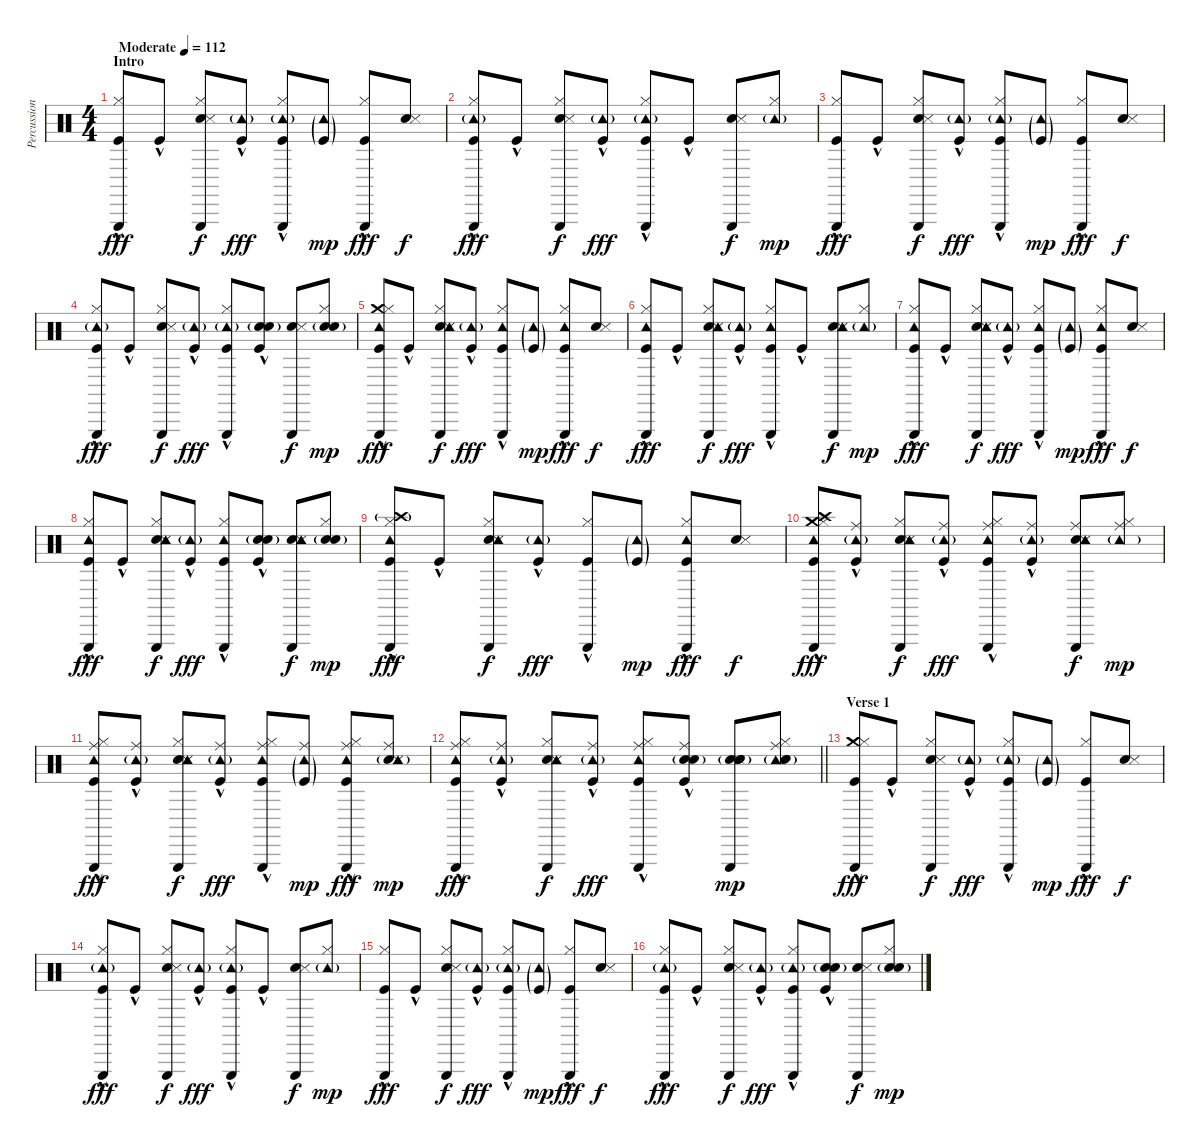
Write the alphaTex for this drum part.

\track ("Percussioni" "Percussion") {instrument percussion}
\staff {score}
\articulation defaults
\ts (4 4)
\section ("" "Intro")
\tempo (112 "Moderate")
\clef neutral
\ks c
("Triangle (hit)" "Hi-Hat (closed)" "Kick (hit)"{hac}).8{dy fff} "Kick (hit)"{hac}.8 ("Hand Clap (hit)" "Snare (side stick) 3" "Hi-Hat (closed)" "Triangle (hit)").8{dy f} ("Tambourine (hit)"{g} "Kick (hit)"{hac}).8{dy fff} ("Triangle (hit)" "Hi-Hat (closed)" "Tambourine (hit)"{g} "Kick (hit)"{hac}).8 ("Tambourine (hit)"{g} "Kick (hit)"{g}).8{dy mp} ("Triangle (hit)" "Hi-Hat (closed)" "Kick (hit)"{hac}).8{dy fff} ("Hand Clap (hit)" "Snare (side stick) 3").8{dy f} |
("Triangle (hit)" "Hi-Hat (closed)" "Tambourine (hit)"{g} "Kick (hit)"{hac}).8{dy fff} "Kick (hit)"{hac}.8 ("Hand Clap (hit)" "Snare (side stick) 3" "Hi-Hat (closed)" "Triangle (hit)").8{dy f} ("Tambourine (hit)"{g} "Kick (hit)"{hac}).8{dy fff} ("Triangle (hit)" "Hi-Hat (closed)" "Tambourine (hit)"{g} "Kick (hit)"{hac}).8 "Kick (hit)"{hac}.8 ("Hand Clap (hit)" "Snare (side stick) 3" "Triangle (hit)").8{dy f} ("Hi-Hat (closed)" "Tambourine (hit)"{g}).8{dy mp} |
("Triangle (hit)" "Hi-Hat (closed)" "Kick (hit)"{hac}).8{dy fff} "Kick (hit)"{hac}.8 ("Hand Clap (hit)" "Snare (side stick) 3" "Hi-Hat (closed)" "Triangle (hit)").8{dy f} ("Tambourine (hit)"{g} "Kick (hit)"{hac}).8{dy fff} ("Triangle (hit)" "Hi-Hat (closed)" "Tambourine (hit)"{g} "Kick (hit)"{hac}).8 ("Tambourine (hit)"{g} "Kick (hit)"{g}).8{dy mp} ("Triangle (hit)" "Hi-Hat (closed)" "Kick (hit)"{hac}).8{dy fff} ("Hand Clap (hit)" "Snare (side stick) 3").8{dy f} |
("Triangle (hit)" "Hi-Hat (closed)" "Tambourine (hit)"{g} "Kick (hit)"{hac}).8{dy fff} "Kick (hit)"{hac}.8 ("Hand Clap (hit)" "Snare (side stick) 3" "Hi-Hat (closed)" "Triangle (hit)").8{dy f} ("Tambourine (hit)"{g} "Kick (hit)"{hac}).8{dy fff} ("Triangle (hit)" "Hi-Hat (closed)" "Tambourine (hit)"{g} "Kick (hit)"{hac}).8 ("Snare (hit) 2" "Electric Snare (hit)"{g} "Kick (hit)"{hac}).8 ("Hand Clap (hit)" "Snare (side stick) 3" "Triangle (hit)").8{dy f} ("Hi-Hat (closed)" "Snare (hit) 2" "Electric Snare (hit)"{g}).8{dy mp} |
("Crash medium (hit)"{hac} "Triangle (hit)" "Hi-Hat (closed)" "Tambourine (hit)" "Kick (hit)"{hac}).8{dy fff} "Kick (hit)"{hac}.8 ("Hand Clap (hit)" "Snare (side stick) 3" "Hi-Hat (closed)" "Tambourine (hit)" "Triangle (hit)").8{dy f} ("Tambourine (hit)"{g} "Kick (hit)"{hac}).8{dy fff} ("Triangle (hit)" "Hi-Hat (closed)" "Tambourine (hit)" "Kick (hit)"{hac}).8 ("Tambourine (hit)"{g} "Kick (hit)"{g}).8{dy mp} ("Triangle (hit)" "Hi-Hat (closed)" "Tambourine (hit)" "Kick (hit)"{hac}).8{dy fff} ("Hand Clap (hit)" "Snare (side stick) 3").8{dy f} |
("Triangle (hit)" "Hi-Hat (closed)" "Tambourine (hit)" "Kick (hit)"{hac}).8{dy fff} "Kick (hit)"{hac}.8 ("Hand Clap (hit)" "Snare (side stick) 3" "Hi-Hat (closed)" "Tambourine (hit)" "Triangle (hit)").8{dy f} ("Tambourine (hit)"{g} "Kick (hit)"{hac}).8{dy fff} ("Triangle (hit)" "Hi-Hat (closed)" "Tambourine (hit)" "Kick (hit)"{hac}).8 "Kick (hit)"{hac}.8 ("Hand Clap (hit)" "Snare (side stick) 3" "Triangle (hit)" "Tambourine (hit)").8{dy f} ("Hi-Hat (closed)" "Tambourine (hit)"{g}).8{dy mp} |
("Triangle (hit)" "Hi-Hat (closed)" "Tambourine (hit)" "Kick (hit)"{hac}).8{dy fff} "Kick (hit)"{hac}.8 ("Hand Clap (hit)" "Snare (side stick) 3" "Hi-Hat (closed)" "Tambourine (hit)" "Triangle (hit)").8{dy f} ("Tambourine (hit)"{g} "Kick (hit)"{hac}).8{dy fff} ("Triangle (hit)" "Hi-Hat (closed)" "Tambourine (hit)" "Kick (hit)"{hac}).8 ("Tambourine (hit)"{g} "Kick (hit)"{g}).8{dy mp} ("Triangle (hit)" "Hi-Hat (closed)" "Tambourine (hit)" "Kick (hit)"{hac}).8{dy fff} ("Hand Clap (hit)" "Snare (side stick) 3").8{dy f} |
("Triangle (hit)" "Hi-Hat (closed)" "Tambourine (hit)" "Kick (hit)"{hac}).8{dy fff} "Kick (hit)"{hac}.8 ("Hand Clap (hit)" "Snare (side stick) 3" "Hi-Hat (closed)" "Tambourine (hit)" "Triangle (hit)").8{dy f} ("Tambourine (hit)"{g} "Kick (hit)"{hac}).8{dy fff} ("Triangle (hit)" "Hi-Hat (closed)" "Tambourine (hit)" "Kick (hit)"{hac}).8 ("Snare (hit) 2" "Electric Snare (hit)"{g} "Kick (hit)"{hac}).8 ("Hand Clap (hit)" "Snare (side stick) 3" "Triangle (hit)" "Tambourine (hit)").8{dy f} ("Hi-Hat (closed)" "Snare (hit) 2" "Electric Snare (hit)"{g}).8{dy mp} |
("Crash high (hit)"{g} "Triangle (hit)" "Hi-Hat (closed)" "Tambourine (hit)" "Kick (hit)"{hac}).8{dy fff} "Kick (hit)"{hac}.8 ("Hand Clap (hit)" "Snare (side stick) 3" "Hi-Hat (closed)" "Tambourine (hit)" "Triangle (hit)").8{dy f} ("Tambourine (hit)"{g} "Kick (hit)"{hac}).8{dy fff} ("Triangle (hit)" "Hi-Hat (closed)" "Kick (hit)"{hac}).8 ("Tambourine (hit)"{g} "Kick (hit)"{g}).8{dy mp} ("Triangle (hit)" "Hi-Hat (closed)" "Tambourine (hit)" "Kick (hit)"{hac}).8{dy fff} ("Hand Clap (hit)" "Snare (side stick) 3").8{dy f} |
("Crash high (hit)" "Crash medium (hit)"{hac} "Hi-Hat (closed)" "Tambourine (hit)" "Triangle (hit)" "Kick (hit)"{hac}).8{dy fff} ("Ride (middle)" "Tambourine (hit)"{g} "Kick (hit)"{hac}).8 ("Hand Clap (hit)" "Snare (side stick) 3" "Hi-Hat (closed)" "Tambourine (hit)" "Triangle (hit)").8{dy f} ("Ride (middle)" "Tambourine (hit)"{g} "Kick (hit)"{hac}).8{dy fff} ("Ride (middle)" "Hi-Hat (closed)" "Tambourine (hit)" "Triangle (hit)" "Kick (hit)"{hac}).8 ("Ride (middle)" "Tambourine (hit)"{g} "Kick (hit)"{hac}).8 ("Hand Clap (hit)" "Snare (side stick) 3" "Ride (middle)" "Tambourine (hit)" "Triangle (hit)").8{dy f} ("Ride (middle)" "Hi-Hat (closed)" "Tambourine (hit)"{g}).8{dy mp} |
("Ride (middle)" "Hi-Hat (closed)" "Tambourine (hit)" "Triangle (hit)" "Kick (hit)"{hac}).8{dy fff} ("Ride (middle)" "Tambourine (hit)"{g} "Kick (hit)"{hac}).8 ("Hand Clap (hit)" "Snare (side stick) 3" "Hi-Hat (closed)" "Tambourine (hit)" "Triangle (hit)").8{dy f} ("Ride (middle)" "Tambourine (hit)"{g} "Kick (hit)"{hac}).8{dy fff} ("Ride (middle)" "Hi-Hat (closed)" "Tambourine (hit)" "Triangle (hit)" "Kick (hit)"{hac}).8 ("Ride (middle)" "Tambourine (hit)"{g} "Kick (hit)"{g}).8{dy mp} ("Ride (middle)" "Hi-Hat (closed)" "Tambourine (hit)" "Triangle (hit)" "Kick (hit)"{hac}).8{dy fff} ("Hand Clap (hit)" "Snare (side stick) 3" "Ride (middle)" "Tambourine (hit)"{g}).8{dy mp} |
\barLineRight lightlight
("Ride (middle)" "Hi-Hat (closed)" "Tambourine (hit)" "Triangle (hit)" "Kick (hit)"{hac}).8{dy fff} ("Ride (middle)" "Tambourine (hit)"{g} "Kick (hit)"{hac}).8 ("Hand Clap (hit)" "Snare (side stick) 3" "Hi-Hat (closed)" "Tambourine (hit)" "Triangle (hit)").8{dy f} ("Ride (middle)" "Tambourine (hit)"{g} "Kick (hit)"{hac}).8{dy fff} ("Ride (middle)" "Hi-Hat (closed)" "Tambourine (hit)" "Triangle (hit)" "Kick (hit)"{hac}).8 ("Ride (middle)" "Snare (hit) 2" "Electric Snare (hit)"{g} "Kick (hit)"{hac}).8 ("Hand Clap (hit)" "Snare (side stick) 3" "Triangle (hit)" "Snare (hit) 2" "Electric Snare (hit)"{g}).8{dy mp} ("Ride (middle)" "Tambourine (hit)" "Hi-Hat (closed)" "Snare (hit) 2" "Electric Snare (hit)"{g}).8 |
\section ("" "Verse 1")
("Triangle (hit)" "Crash medium (hit)" "Hi-Hat (closed)" "Kick (hit)"{hac}).8{dy fff} "Kick (hit)"{hac}.8 ("Hand Clap (hit)" "Snare (side stick) 3" "Hi-Hat (closed)" "Triangle (hit)").8{dy f} ("Tambourine (hit)"{g} "Kick (hit)"{hac}).8{dy fff} ("Triangle (hit)" "Hi-Hat (closed)" "Tambourine (hit)"{g} "Kick (hit)"{hac}).8 ("Tambourine (hit)"{g} "Kick (hit)"{g}).8{dy mp} ("Triangle (hit)" "Hi-Hat (closed)" "Kick (hit)"{hac}).8{dy fff} ("Hand Clap (hit)" "Snare (side stick) 3").8{dy f} |
("Triangle (hit)" "Hi-Hat (closed)" "Tambourine (hit)"{g} "Kick (hit)"{hac}).8{dy fff} "Kick (hit)"{hac}.8 ("Hand Clap (hit)" "Snare (side stick) 3" "Hi-Hat (closed)" "Triangle (hit)").8{dy f} ("Tambourine (hit)"{g} "Kick (hit)"{hac}).8{dy fff} ("Triangle (hit)" "Hi-Hat (closed)" "Tambourine (hit)"{g} "Kick (hit)"{hac}).8 "Kick (hit)"{hac}.8 ("Hand Clap (hit)" "Snare (side stick) 3" "Triangle (hit)").8{dy f} ("Hi-Hat (closed)" "Tambourine (hit)"{g}).8{dy mp} |
("Triangle (hit)" "Hi-Hat (closed)" "Kick (hit)"{hac}).8{dy fff} "Kick (hit)"{hac}.8 ("Hand Clap (hit)" "Snare (side stick) 3" "Hi-Hat (closed)" "Triangle (hit)").8{dy f} ("Tambourine (hit)"{g} "Kick (hit)"{hac}).8{dy fff} ("Triangle (hit)" "Hi-Hat (closed)" "Tambourine (hit)"{g} "Kick (hit)"{hac}).8 ("Tambourine (hit)"{g} "Kick (hit)"{g}).8{dy mp} ("Triangle (hit)" "Hi-Hat (closed)" "Kick (hit)"{hac}).8{dy fff} ("Hand Clap (hit)" "Snare (side stick) 3").8{dy f} |
("Triangle (hit)" "Hi-Hat (closed)" "Tambourine (hit)"{g} "Kick (hit)"{hac}).8{dy fff} "Kick (hit)"{hac}.8 ("Hand Clap (hit)" "Snare (side stick) 3" "Hi-Hat (closed)" "Triangle (hit)").8{dy f} ("Tambourine (hit)"{g} "Kick (hit)"{hac}).8{dy fff} ("Triangle (hit)" "Hi-Hat (closed)" "Tambourine (hit)"{g} "Kick (hit)"{hac}).8 ("Snare (hit) 2" "Electric Snare (hit)"{g} "Kick (hit)"{hac}).8 ("Hand Clap (hit)" "Snare (side stick) 3" "Triangle (hit)").8{dy f} ("Hi-Hat (closed)" "Snare (hit) 2" "Electric Snare (hit)"{g}).8{dy mp}
